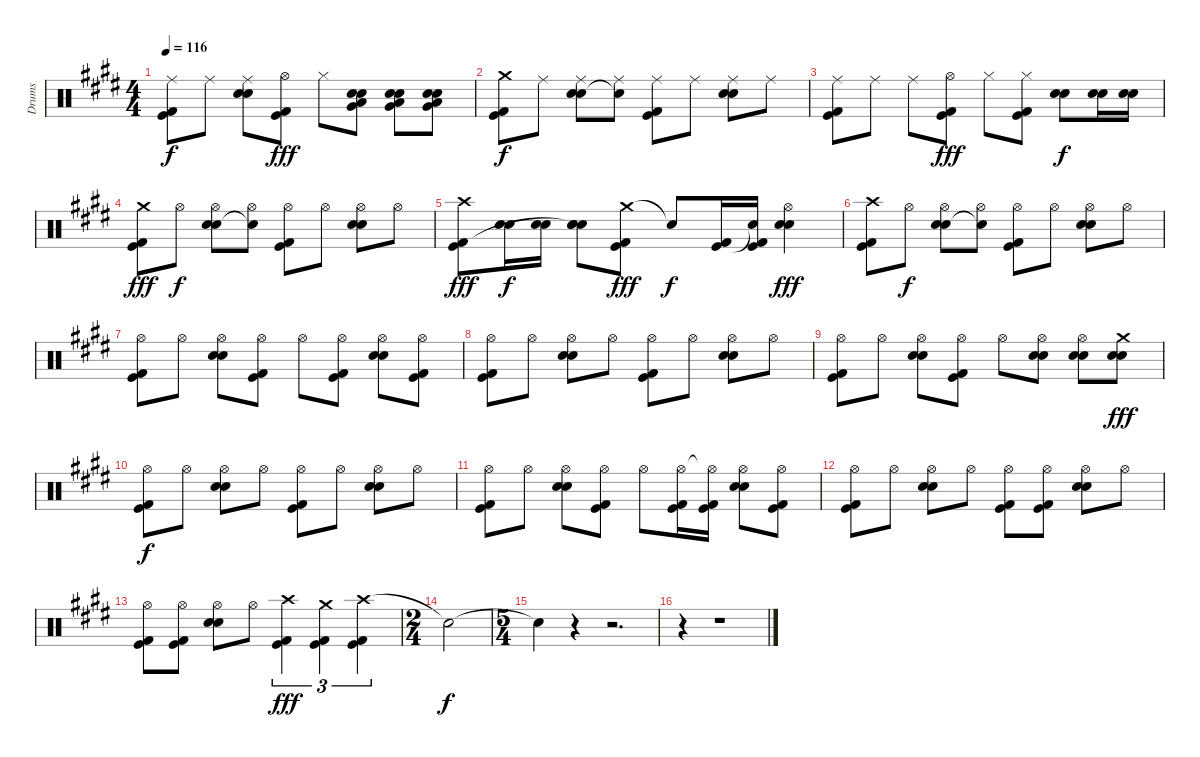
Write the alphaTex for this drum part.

\track ("Drums" "Drums") {instrument percussion}
\staff {score}
\articulation defaults
\ts (4 4)
\tempo 116
\clef neutral
\ks e
("Ride (middle)" "Kick (hit)" "Kick (hit) 2").8{dy f} "Ride (middle)".8 ("Ride (middle)" "Electric Snare (hit)" "Snare (hit) 2").8 ("Hi-Hat (open)" "Kick (hit)" "Kick (hit) 2").8{dy fff} "Hi-Hat (closed)".8 ("Electric Snare (hit)" "Snare (hit) 2" "Very Low Tom (hit)" "Low Floor Tom (hit)").8 ("Electric Snare (hit)" "Snare (hit) 2" "Very Low Tom (hit)" "Low Floor Tom (hit)").8 ("Electric Snare (hit)" "Snare (hit) 2" "Very Low Tom (hit)" "Low Floor Tom (hit)").8 |
("Crash medium (hit)" "Kick (hit)" "Kick (hit) 2").8{dy f} "Ride (middle)".8 ("Ride (middle)" "Electric Snare (hit)" "Snare (hit) 2").8 ("Ride (middle)" "Snare (hit)"{t}).8 ("Ride (middle)" "Kick (hit)" "Kick (hit) 2").8 "Ride (middle)".8 ("Ride (middle)" "Electric Snare (hit)" "Snare (hit) 2").8 "Ride (middle)".8 |
("Ride (middle)" "Kick (hit)" "Kick (hit) 2").8 "Ride (middle)".8 "Ride (middle)".8 ("Hi-Hat (open)" "Kick (hit)" "Kick (hit) 2").8{dy fff} "Hi-Hat (closed)".8 ("Hi-Hat (closed)" "Kick (hit)" "Kick (hit) 2").8 ("Electric Snare (hit)" "Snare (hit) 2").8{dy f} ("Electric Snare (hit)" "Snare (hit) 2").16 ("Electric Snare (hit)" "Snare (hit) 2").16 |
("Crash medium (hit)" "Kick (hit)" "Kick (hit) 2").8{dy fff} "Hi-Hat (open)".8{dy f} ("Hi-Hat (open)" "Electric Snare (hit)" "Snare (hit) 2").8 ("Hi-Hat (open)" "Snare (hit)"{t}).8 ("Hi-Hat (open)" "Kick (hit)" "Kick (hit) 2").8 "Hi-Hat (open)".8 ("Hi-Hat (open)" "Electric Snare (hit)" "Snare (hit) 2").8 "Hi-Hat (open)".8 |
("Crash high (hit)" "Kick (hit)" "Kick (hit) 2").8{dy fff} ("Electric Snare (hit)" "Snare (hit) 2").16{dy f} ("Electric Snare (hit)" "Snare (hit) 2").16 ("Electric Snare (hit)" "Snare (hit) 2" "Snare (hit)"{t}).8 ("Crash medium (hit)" "Kick (hit)" "Kick (hit) 2").8{dy fff} "Snare (hit)"{t}.8{dy f} ("Kick (hit)" "Kick (hit) 2").16 ("Snare (hit)"{t} "Kick (hit)" "Kick (hit) 2").16 ("Hi-Hat (open)" "Electric Snare (hit)" "Snare (hit) 2").4{dy fff} |
("Crash high (hit)" "Kick (hit)" "Kick (hit) 2").8 "Hi-Hat (open)".8{dy f} ("Hi-Hat (open)" "Electric Snare (hit)" "Snare (hit) 2").8 ("Hi-Hat (open)" "Snare (hit)"{t}).8 ("Hi-Hat (open)" "Kick (hit)" "Kick (hit) 2").8 "Hi-Hat (open)".8 ("Hi-Hat (open)" "Electric Snare (hit)" "Snare (hit) 2").8 "Hi-Hat (open)".8 |
("Hi-Hat (open)" "Kick (hit)" "Kick (hit) 2").8 "Hi-Hat (open)".8 ("Hi-Hat (open)" "Electric Snare (hit)" "Snare (hit) 2").8 ("Hi-Hat (open)" "Kick (hit)" "Kick (hit) 2").8 "Hi-Hat (open)".8 ("Hi-Hat (open)" "Kick (hit)" "Kick (hit) 2").8 ("Hi-Hat (open)" "Electric Snare (hit)" "Snare (hit) 2").8 ("Hi-Hat (open)" "Kick (hit)" "Kick (hit) 2").8 |
("Hi-Hat (open)" "Kick (hit)" "Kick (hit) 2").8 "Hi-Hat (open)".8 ("Hi-Hat (open)" "Electric Snare (hit)" "Snare (hit) 2").8 "Hi-Hat (open)".8 ("Hi-Hat (open)" "Kick (hit)" "Kick (hit) 2").8 "Hi-Hat (open)".8 ("Hi-Hat (open)" "Electric Snare (hit)" "Snare (hit) 2").8 "Hi-Hat (open)".8 |
("Hi-Hat (open)" "Kick (hit)" "Kick (hit) 2").8 "Hi-Hat (open)".8 ("Hi-Hat (open)" "Electric Snare (hit)" "Snare (hit) 2").8 ("Hi-Hat (open)" "Kick (hit)" "Kick (hit) 2").8 "Hi-Hat (open)".8 ("Hi-Hat (open)" "Electric Snare (hit)" "Snare (hit) 2").8 ("Hi-Hat (open)" "Electric Snare (hit)" "Snare (hit) 2").8 ("Electric Snare (hit)" "Snare (hit) 2" "Crash medium (hit)").8{dy fff} |
("Hi-Hat (open)" "Kick (hit)" "Kick (hit) 2").8{dy f} "Hi-Hat (open)".8 ("Hi-Hat (open)" "Electric Snare (hit)" "Snare (hit) 2").8 "Hi-Hat (open)".8 ("Hi-Hat (open)" "Kick (hit)" "Kick (hit) 2").8 "Hi-Hat (open)".8 ("Hi-Hat (open)" "Electric Snare (hit)" "Snare (hit) 2").8 "Hi-Hat (open)".8 |
("Hi-Hat (open)" "Kick (hit)" "Kick (hit) 2").8 "Hi-Hat (open)".8 ("Hi-Hat (open)" "Electric Snare (hit)" "Snare (hit) 2").8 ("Hi-Hat (open)" "Kick (hit)" "Kick (hit) 2").8 "Hi-Hat (open)".8 ("Hi-Hat (open)" "Kick (hit)" "Kick (hit) 2").16 ("Hi-Hat (open)"{t} "Kick (hit)" "Kick (hit) 2").16 ("Hi-Hat (open)" "Electric Snare (hit)" "Snare (hit) 2").8 ("Hi-Hat (open)" "Kick (hit)" "Kick (hit) 2").8 |
("Hi-Hat (open)" "Kick (hit)" "Kick (hit) 2").8 "Hi-Hat (open)".8 ("Hi-Hat (open)" "Electric Snare (hit)" "Snare (hit) 2").8 "Hi-Hat (open)".8 ("Hi-Hat (open)" "Kick (hit)" "Kick (hit) 2").8 ("Hi-Hat (open)" "Kick (hit)" "Kick (hit) 2").8 ("Hi-Hat (open)" "Electric Snare (hit)" "Snare (hit) 2").8 "Hi-Hat (open)".8 |
("Hi-Hat (open)" "Kick (hit)" "Kick (hit) 2").8 ("Hi-Hat (open)" "Kick (hit)" "Kick (hit) 2").8 ("Hi-Hat (open)" "Electric Snare (hit)" "Snare (hit) 2").8 "Hi-Hat (open)".8 ("Crash high (hit)" "Kick (hit)" "Kick (hit) 2").4{tu (3 2) dy fff} ("Crash medium (hit)" "Kick (hit)" "Kick (hit) 2").4{tu (3 2)} ("Crash high (hit)" "Kick (hit)" "Kick (hit) 2").4{tu (3 2)} |
\ts (2 4)
"Snare (hit)"{t}.2{dy f} |
\ts (5 4)
"Snare (hit)"{t}.4 r.4 r.2{d} |
r.4 r.1
